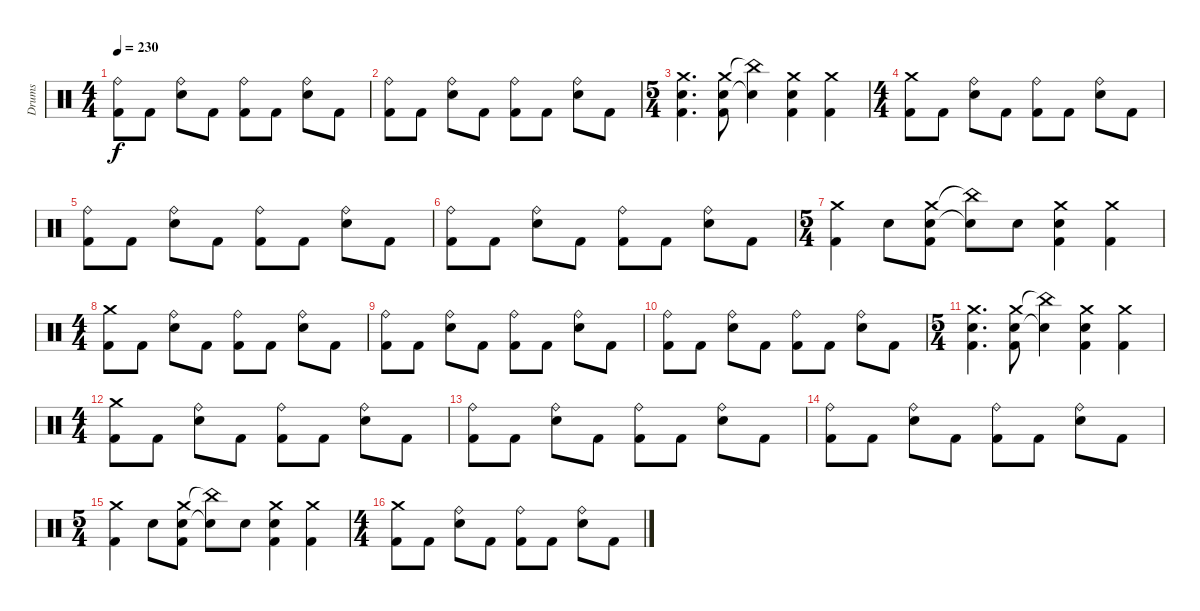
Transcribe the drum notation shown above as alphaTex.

\track ("Drums" "Drums") {instrument percussion}
\staff {score}
\articulation defaults
\ts (4 4)
\tempo 230
\clef neutral
\ks c
("Ride (bell)" "Kick (hit) 2").8{dy f} "Kick (hit) 2".8 ("Ride (bell)" "Snare (hit) 2").8 "Kick (hit) 2".8 ("Ride (bell)" "Kick (hit) 2").8 "Kick (hit) 2".8 ("Ride (bell)" "Snare (hit) 2").8 "Kick (hit) 2".8 |
("Ride (bell)" "Kick (hit) 2").8 "Kick (hit) 2".8 ("Ride (bell)" "Snare (hit) 2").8 "Kick (hit) 2".8 ("Ride (bell)" "Kick (hit) 2").8 "Kick (hit) 2".8 ("Ride (bell)" "Snare (hit) 2").8 "Kick (hit) 2".8 |
\ts (5 4)
("Crash medium (hit)" "Snare (hit) 2" "Kick (hit) 2").4{d} ("Crash medium (hit)" "Snare (hit) 2" "Kick (hit) 2").8 ("China (hit)"{t} "Snare (hit) 2"{t}).4 ("Crash medium (hit)" "Snare (hit) 2" "Kick (hit) 2").4 ("Crash medium (hit)" "Kick (hit) 2").4 |
\ts (4 4)
("Crash medium (hit)" "Kick (hit) 2").8 "Kick (hit) 2".8 ("Ride (bell)" "Snare (hit) 2").8 "Kick (hit) 2".8 ("Ride (bell)" "Kick (hit) 2").8 "Kick (hit) 2".8 ("Ride (bell)" "Snare (hit) 2").8 "Kick (hit) 2".8 |
("Ride (bell)" "Kick (hit) 2").8 "Kick (hit) 2".8 ("Ride (bell)" "Snare (hit) 2").8 "Kick (hit) 2".8 ("Ride (bell)" "Kick (hit) 2").8 "Kick (hit) 2".8 ("Ride (bell)" "Snare (hit) 2").8 "Kick (hit) 2".8 |
("Ride (bell)" "Kick (hit) 2").8 "Kick (hit) 2".8 ("Ride (bell)" "Snare (hit) 2").8 "Kick (hit) 2".8 ("Ride (bell)" "Kick (hit) 2").8 "Kick (hit) 2".8 ("Ride (bell)" "Snare (hit) 2").8 "Kick (hit) 2".8 |
\ts (5 4)
("Crash medium (hit)" "Kick (hit) 2").4 "Snare (hit) 2".8 ("Crash medium (hit)" "Snare (hit) 2" "Kick (hit) 2").8 ("China (hit)"{t} "Snare (hit) 2"{t}).8 "Snare (hit) 2".8 ("Crash medium (hit)" "Snare (hit) 2" "Kick (hit) 2").4 ("Crash medium (hit)" "Kick (hit) 2").4 |
\ts (4 4)
("Crash medium (hit)" "Kick (hit) 2").8 "Kick (hit) 2".8 ("Ride (bell)" "Snare (hit) 2").8 "Kick (hit) 2".8 ("Ride (bell)" "Kick (hit) 2").8 "Kick (hit) 2".8 ("Ride (bell)" "Snare (hit) 2").8 "Kick (hit) 2".8 |
("Ride (bell)" "Kick (hit) 2").8 "Kick (hit) 2".8 ("Ride (bell)" "Snare (hit) 2").8 "Kick (hit) 2".8 ("Ride (bell)" "Kick (hit) 2").8 "Kick (hit) 2".8 ("Ride (bell)" "Snare (hit) 2").8 "Kick (hit) 2".8 |
("Ride (bell)" "Kick (hit) 2").8 "Kick (hit) 2".8 ("Ride (bell)" "Snare (hit) 2").8 "Kick (hit) 2".8 ("Ride (bell)" "Kick (hit) 2").8 "Kick (hit) 2".8 ("Ride (bell)" "Snare (hit) 2").8 "Kick (hit) 2".8 |
\ts (5 4)
("Crash medium (hit)" "Snare (hit) 2" "Kick (hit) 2").4{d} ("Crash medium (hit)" "Snare (hit) 2" "Kick (hit) 2").8 ("China (hit)"{t} "Snare (hit) 2"{t}).4 ("Crash medium (hit)" "Snare (hit) 2" "Kick (hit) 2").4 ("Crash medium (hit)" "Kick (hit) 2").4 |
\ts (4 4)
("Crash medium (hit)" "Kick (hit) 2").8 "Kick (hit) 2".8 ("Ride (bell)" "Snare (hit) 2").8 "Kick (hit) 2".8 ("Ride (bell)" "Kick (hit) 2").8 "Kick (hit) 2".8 ("Ride (bell)" "Snare (hit) 2").8 "Kick (hit) 2".8 |
("Ride (bell)" "Kick (hit) 2").8 "Kick (hit) 2".8 ("Ride (bell)" "Snare (hit) 2").8 "Kick (hit) 2".8 ("Ride (bell)" "Kick (hit) 2").8 "Kick (hit) 2".8 ("Ride (bell)" "Snare (hit) 2").8 "Kick (hit) 2".8 |
("Ride (bell)" "Kick (hit) 2").8 "Kick (hit) 2".8 ("Ride (bell)" "Snare (hit) 2").8 "Kick (hit) 2".8 ("Ride (bell)" "Kick (hit) 2").8 "Kick (hit) 2".8 ("Ride (bell)" "Snare (hit) 2").8 "Kick (hit) 2".8 |
\ts (5 4)
("Crash medium (hit)" "Kick (hit) 2").4 "Snare (hit) 2".8 ("Crash medium (hit)" "Snare (hit) 2" "Kick (hit) 2").8 ("China (hit)"{t} "Snare (hit) 2"{t}).8 "Snare (hit) 2".8 ("Crash medium (hit)" "Snare (hit) 2" "Kick (hit) 2").4 ("Crash medium (hit)" "Kick (hit) 2").4 |
\ts (4 4)
("Crash medium (hit)" "Kick (hit) 2").8 "Kick (hit) 2".8 ("Ride (bell)" "Snare (hit) 2").8 "Kick (hit) 2".8 ("Ride (bell)" "Kick (hit) 2").8 "Kick (hit) 2".8 ("Ride (bell)" "Snare (hit) 2").8 "Kick (hit) 2".8
